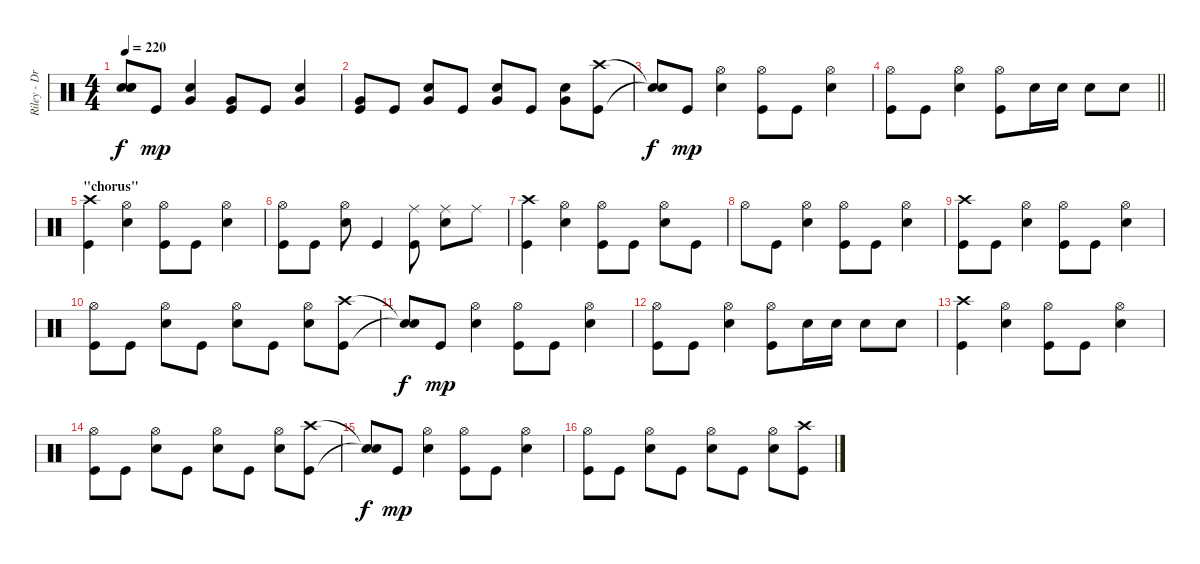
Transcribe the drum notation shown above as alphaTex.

\track ("Riley - Drums" "Riley - Dr") {instrument percussion}
\staff {score}
\articulation defaults
\ts (4 4)
\tempo 220
\clef neutral
\ks c
("Snare (hit)"{t} "Snare (hit)"{t} "Snare (hit)"{t}).8{dy f} "Kick (hit)".8{dy mp} ("Electric Snare (hit)" "Very Low Tom (hit)").4 ("Kick (hit)" "Very Low Tom (hit)").8 "Kick (hit)".8 ("Electric Snare (hit)" "Very Low Tom (hit)").4 |
("Kick (hit)" "Very Low Tom (hit)").8 "Kick (hit)".8 ("Electric Snare (hit)" "Very Low Tom (hit)").8 "Kick (hit)".8 ("Electric Snare (hit)" "Very Low Tom (hit)").8 "Kick (hit)".8 ("Electric Snare (hit)" "Very Low Tom (hit)").8 ("Kick (hit)" "Crash high (hit)").8 |
("Snare (hit)"{t} "Snare (hit)"{t}).8{dy f} "Kick (hit)".8{dy mp} ("Electric Snare (hit)" "Hi-Hat (open)").4 ("Kick (hit)" "Hi-Hat (open)").8 "Kick (hit)".8 ("Electric Snare (hit)" "Hi-Hat (open)").4 |
\barLineRight lightlight
("Kick (hit)" "Hi-Hat (open)").8 "Kick (hit)".8 ("Electric Snare (hit)" "Hi-Hat (open)").4 ("Kick (hit)" "Hi-Hat (open)").8 "Electric Snare (hit)".16 "Electric Snare (hit)".16 "Electric Snare (hit)".8 "Electric Snare (hit)".8 |
\section ("" "\"chorus\"")
("Kick (hit)" "Crash high (hit)").4 ("Electric Snare (hit)" "Hi-Hat (open)").4 ("Kick (hit)" "Hi-Hat (open)").8 "Kick (hit)".8 ("Electric Snare (hit)" "Hi-Hat (open)").4 |
("Kick (hit)" "Hi-Hat (open)").8 "Kick (hit)".8 ("Electric Snare (hit)" "Hi-Hat (open)").8 "Kick (hit)".4 ("Kick (hit)" "Ride (middle)").8 ("Electric Snare (hit)" "Ride (middle)").8 "Ride (middle)".8 |
("Kick (hit)" "Crash high (hit)").4 ("Electric Snare (hit)" "Hi-Hat (open)").4 ("Kick (hit)" "Hi-Hat (open)").8 "Kick (hit)".8 ("Electric Snare (hit)" "Hi-Hat (open)").8 "Kick (hit)".8 |
"Hi-Hat (open)".8 "Kick (hit)".8 ("Electric Snare (hit)" "Hi-Hat (open)").4 ("Kick (hit)" "Hi-Hat (open)").8 "Kick (hit)".8 ("Electric Snare (hit)" "Hi-Hat (open)").4 |
("Kick (hit)" "Crash high (hit)").8 "Kick (hit)".8 ("Electric Snare (hit)" "Hi-Hat (open)").4 ("Kick (hit)" "Hi-Hat (open)").8 "Kick (hit)".8 ("Electric Snare (hit)" "Hi-Hat (open)").4 |
("Kick (hit)" "Hi-Hat (open)").8 "Kick (hit)".8 ("Electric Snare (hit)" "Hi-Hat (open)").8 "Kick (hit)".8 ("Electric Snare (hit)" "Hi-Hat (open)").8 "Kick (hit)".8 ("Electric Snare (hit)" "Hi-Hat (open)").8 ("Kick (hit)" "Crash high (hit)").8 |
("Snare (hit)"{t} "Snare (hit)"{t}).8{dy f} "Kick (hit)".8{dy mp} ("Electric Snare (hit)" "Hi-Hat (open)").4 ("Kick (hit)" "Hi-Hat (open)").8 "Kick (hit)".8 ("Electric Snare (hit)" "Hi-Hat (open)").4 |
("Kick (hit)" "Hi-Hat (open)").8 "Kick (hit)".8 ("Electric Snare (hit)" "Hi-Hat (open)").4 ("Kick (hit)" "Hi-Hat (open)").8 "Electric Snare (hit)".16 "Electric Snare (hit)".16 "Electric Snare (hit)".8 "Electric Snare (hit)".8 |
("Kick (hit)" "Crash high (hit)").4 ("Electric Snare (hit)" "Hi-Hat (open)").4 ("Kick (hit)" "Hi-Hat (open)").8 "Kick (hit)".8 ("Electric Snare (hit)" "Hi-Hat (open)").4 |
("Kick (hit)" "Hi-Hat (open)").8 "Kick (hit)".8 ("Electric Snare (hit)" "Hi-Hat (open)").8 "Kick (hit)".8 ("Electric Snare (hit)" "Hi-Hat (open)").8 "Kick (hit)".8 ("Electric Snare (hit)" "Hi-Hat (open)").8 ("Kick (hit)" "Crash high (hit)").8 |
("Snare (hit)"{t} "Snare (hit)"{t}).8{dy f} "Kick (hit)".8{dy mp} ("Electric Snare (hit)" "Hi-Hat (open)").4 ("Kick (hit)" "Hi-Hat (open)").8 "Kick (hit)".8 ("Electric Snare (hit)" "Hi-Hat (open)").4 |
("Kick (hit)" "Hi-Hat (open)").8 "Kick (hit)".8 ("Electric Snare (hit)" "Hi-Hat (open)").8 "Kick (hit)".8 ("Electric Snare (hit)" "Hi-Hat (open)").8 "Kick (hit)".8 ("Electric Snare (hit)" "Hi-Hat (open)").8 ("Kick (hit)" "Crash high (hit)").8
